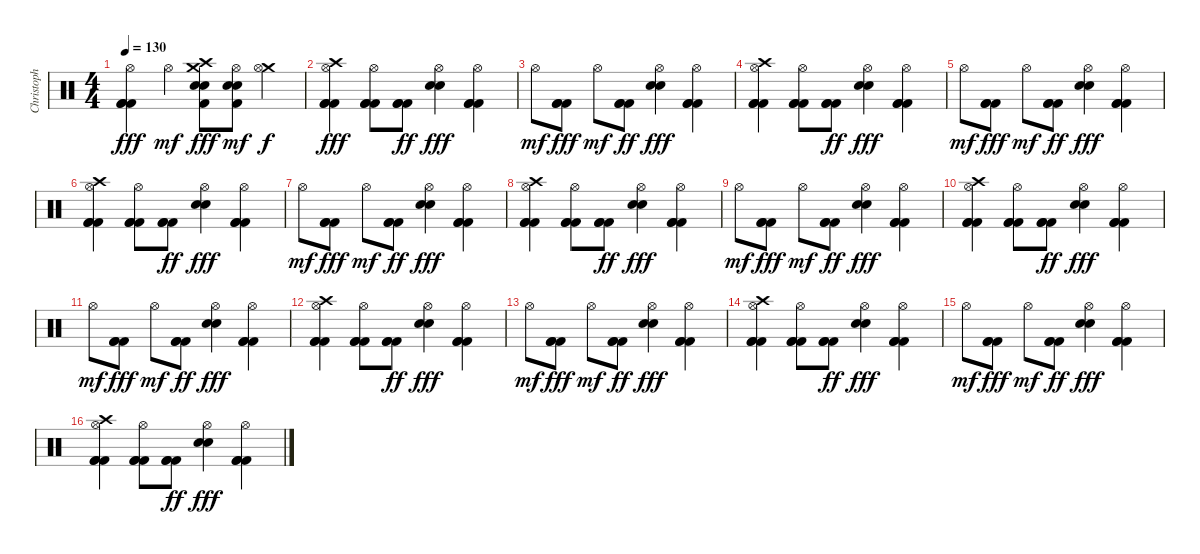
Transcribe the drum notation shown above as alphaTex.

\track ("Christoph Schneider" "Christoph ") {instrument percussion}
\staff {score}
\articulation defaults
\ts (4 4)
\tempo 130
\clef neutral
\ks c
("Hi-Hat (open)" "Kick (hit) 2" "Kick (hit) 2" "Kick (hit) 2").4{dy fff} "Hi-Hat (open)".4{dy mf} ("Crash medium (hit)" "Crash high (hit)" "Snare (hit) 2" "Snare (hit) 2" "Kick (hit) 2").8{dy fff} ("Hi-Hat (open)" "Snare (hit) 2" "Snare (hit) 2" "Kick (hit) 2").8{dy mf} ("Crash medium (hit)" "Hi-Hat (open)").4{dy f} |
("Crash high (hit)" "Hi-Hat (open)" "Kick (hit) 2" "Kick (hit) 2" "Kick (hit) 2").4{dy fff} ("Hi-Hat (open)" "Kick (hit) 2" "Kick (hit) 2" "Kick (hit) 2").8 ("Kick (hit) 2" "Kick (hit) 2" "Kick (hit) 2").8{dy ff} ("Hi-Hat (open)" "Snare (hit) 2" "Snare (hit) 2").4{dy fff} ("Hi-Hat (open)" "Kick (hit) 2" "Kick (hit) 2" "Kick (hit) 2").4 |
"Hi-Hat (open)".8{dy mf} ("Kick (hit) 2" "Kick (hit) 2" "Kick (hit) 2").8{dy fff} "Hi-Hat (open)".8{dy mf} ("Kick (hit) 2" "Kick (hit) 2" "Kick (hit) 2").8{dy ff} ("Hi-Hat (open)" "Snare (hit) 2" "Snare (hit) 2").4{dy fff} ("Hi-Hat (open)" "Kick (hit) 2" "Kick (hit) 2" "Kick (hit) 2").4 |
("Crash high (hit)" "Hi-Hat (open)" "Kick (hit) 2" "Kick (hit) 2" "Kick (hit) 2").4 ("Hi-Hat (open)" "Kick (hit) 2" "Kick (hit) 2" "Kick (hit) 2").8 ("Kick (hit) 2" "Kick (hit) 2" "Kick (hit) 2").8{dy ff} ("Hi-Hat (open)" "Snare (hit) 2" "Snare (hit) 2").4{dy fff} ("Hi-Hat (open)" "Kick (hit) 2" "Kick (hit) 2" "Kick (hit) 2").4 |
"Hi-Hat (open)".8{dy mf} ("Kick (hit) 2" "Kick (hit) 2" "Kick (hit) 2").8{dy fff} "Hi-Hat (open)".8{dy mf} ("Kick (hit) 2" "Kick (hit) 2" "Kick (hit) 2").8{dy ff} ("Hi-Hat (open)" "Snare (hit) 2" "Snare (hit) 2").4{dy fff} ("Hi-Hat (open)" "Kick (hit) 2" "Kick (hit) 2" "Kick (hit) 2").4 |
("Crash high (hit)" "Hi-Hat (open)" "Kick (hit) 2" "Kick (hit) 2" "Kick (hit) 2").4 ("Hi-Hat (open)" "Kick (hit) 2" "Kick (hit) 2" "Kick (hit) 2").8 ("Kick (hit) 2" "Kick (hit) 2" "Kick (hit) 2").8{dy ff} ("Hi-Hat (open)" "Snare (hit) 2" "Snare (hit) 2").4{dy fff} ("Hi-Hat (open)" "Kick (hit) 2" "Kick (hit) 2" "Kick (hit) 2").4 |
"Hi-Hat (open)".8{dy mf} ("Kick (hit) 2" "Kick (hit) 2" "Kick (hit) 2").8{dy fff} "Hi-Hat (open)".8{dy mf} ("Kick (hit) 2" "Kick (hit) 2" "Kick (hit) 2").8{dy ff} ("Hi-Hat (open)" "Snare (hit) 2" "Snare (hit) 2").4{dy fff} ("Hi-Hat (open)" "Kick (hit) 2" "Kick (hit) 2" "Kick (hit) 2").4 |
("Crash high (hit)" "Hi-Hat (open)" "Kick (hit) 2" "Kick (hit) 2" "Kick (hit) 2").4 ("Hi-Hat (open)" "Kick (hit) 2" "Kick (hit) 2" "Kick (hit) 2").8 ("Kick (hit) 2" "Kick (hit) 2" "Kick (hit) 2").8{dy ff} ("Hi-Hat (open)" "Snare (hit) 2" "Snare (hit) 2").4{dy fff} ("Hi-Hat (open)" "Kick (hit) 2" "Kick (hit) 2" "Kick (hit) 2").4 |
"Hi-Hat (open)".8{dy mf} ("Kick (hit) 2" "Kick (hit) 2" "Kick (hit) 2").8{dy fff} "Hi-Hat (open)".8{dy mf} ("Kick (hit) 2" "Kick (hit) 2" "Kick (hit) 2").8{dy ff} ("Hi-Hat (open)" "Snare (hit) 2" "Snare (hit) 2").4{dy fff} ("Hi-Hat (open)" "Kick (hit) 2" "Kick (hit) 2" "Kick (hit) 2").4 |
("Crash high (hit)" "Hi-Hat (open)" "Kick (hit) 2" "Kick (hit) 2" "Kick (hit) 2").4 ("Hi-Hat (open)" "Kick (hit) 2" "Kick (hit) 2" "Kick (hit) 2").8 ("Kick (hit) 2" "Kick (hit) 2" "Kick (hit) 2").8{dy ff} ("Hi-Hat (open)" "Snare (hit) 2" "Snare (hit) 2").4{dy fff} ("Hi-Hat (open)" "Kick (hit) 2" "Kick (hit) 2" "Kick (hit) 2").4 |
"Hi-Hat (open)".8{dy mf} ("Kick (hit) 2" "Kick (hit) 2" "Kick (hit) 2").8{dy fff} "Hi-Hat (open)".8{dy mf} ("Kick (hit) 2" "Kick (hit) 2" "Kick (hit) 2").8{dy ff} ("Hi-Hat (open)" "Snare (hit) 2" "Snare (hit) 2").4{dy fff} ("Hi-Hat (open)" "Kick (hit) 2" "Kick (hit) 2" "Kick (hit) 2").4 |
("Crash high (hit)" "Hi-Hat (open)" "Kick (hit) 2" "Kick (hit) 2" "Kick (hit) 2").4 ("Hi-Hat (open)" "Kick (hit) 2" "Kick (hit) 2" "Kick (hit) 2").8 ("Kick (hit) 2" "Kick (hit) 2" "Kick (hit) 2").8{dy ff} ("Hi-Hat (open)" "Snare (hit) 2" "Snare (hit) 2").4{dy fff} ("Hi-Hat (open)" "Kick (hit) 2" "Kick (hit) 2" "Kick (hit) 2").4 |
"Hi-Hat (open)".8{dy mf} ("Kick (hit) 2" "Kick (hit) 2" "Kick (hit) 2").8{dy fff} "Hi-Hat (open)".8{dy mf} ("Kick (hit) 2" "Kick (hit) 2" "Kick (hit) 2").8{dy ff} ("Hi-Hat (open)" "Snare (hit) 2" "Snare (hit) 2").4{dy fff} ("Hi-Hat (open)" "Kick (hit) 2" "Kick (hit) 2" "Kick (hit) 2").4 |
("Crash high (hit)" "Hi-Hat (open)" "Kick (hit) 2" "Kick (hit) 2" "Kick (hit) 2").4 ("Hi-Hat (open)" "Kick (hit) 2" "Kick (hit) 2" "Kick (hit) 2").8 ("Kick (hit) 2" "Kick (hit) 2" "Kick (hit) 2").8{dy ff} ("Hi-Hat (open)" "Snare (hit) 2" "Snare (hit) 2").4{dy fff} ("Hi-Hat (open)" "Kick (hit) 2" "Kick (hit) 2" "Kick (hit) 2").4 |
"Hi-Hat (open)".8{dy mf} ("Kick (hit) 2" "Kick (hit) 2" "Kick (hit) 2").8{dy fff} "Hi-Hat (open)".8{dy mf} ("Kick (hit) 2" "Kick (hit) 2" "Kick (hit) 2").8{dy ff} ("Hi-Hat (open)" "Snare (hit) 2" "Snare (hit) 2").4{dy fff} ("Hi-Hat (open)" "Kick (hit) 2" "Kick (hit) 2" "Kick (hit) 2").4 |
("Crash high (hit)" "Hi-Hat (open)" "Kick (hit) 2" "Kick (hit) 2" "Kick (hit) 2").4 ("Hi-Hat (open)" "Kick (hit) 2" "Kick (hit) 2" "Kick (hit) 2").8 ("Kick (hit) 2" "Kick (hit) 2" "Kick (hit) 2").8{dy ff} ("Hi-Hat (open)" "Snare (hit) 2" "Snare (hit) 2").4{dy fff} ("Hi-Hat (open)" "Kick (hit) 2" "Kick (hit) 2" "Kick (hit) 2").4
